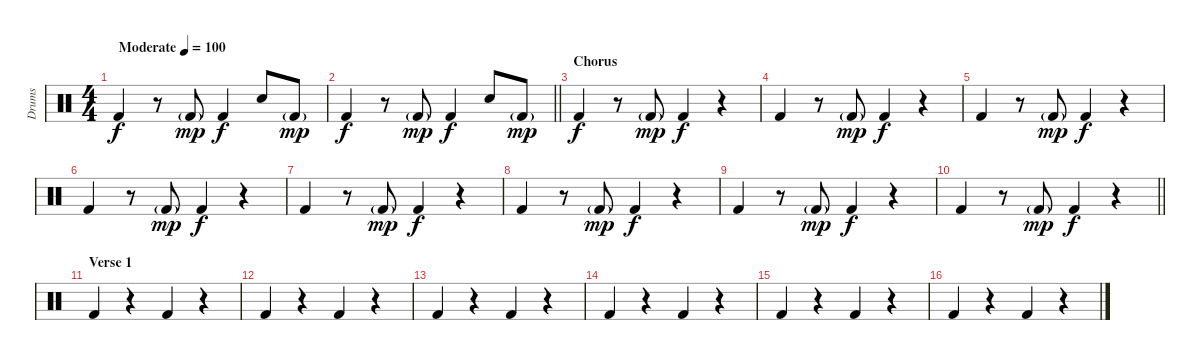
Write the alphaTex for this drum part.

\track ("Drums" "Drums") {instrument percussion}
\staff {score}
\articulation defaults
\ts (4 4)
\tempo (100 "Moderate")
\clef neutral
\ks c "Kick (hit) 2".4{dy f}
r.8 "Kick (hit) 2"{g}.8{dy mp} "Kick (hit) 2".4{dy f} "Snare (hit) 2".8 "Kick (hit) 2"{g}.8{dy mp} |
\barLineRight lightlight "Kick (hit) 2".4{dy f}
r.8 "Kick (hit) 2"{g}.8{dy mp} "Kick (hit) 2".4{dy f} "Snare (hit) 2".8 "Kick (hit) 2"{g}.8{dy mp} |
\section ("" "Chorus")
"Kick (hit) 2".4{dy f} r.8 "Kick (hit) 2"{g}.8{dy mp} "Kick (hit) 2".4{dy f} r.4 |
"Kick (hit) 2".4 r.8 "Kick (hit) 2"{g}.8{dy mp} "Kick (hit) 2".4{dy f} r.4 |
"Kick (hit) 2".4 r.8 "Kick (hit) 2"{g}.8{dy mp} "Kick (hit) 2".4{dy f} r.4 |
"Kick (hit) 2".4 r.8 "Kick (hit) 2"{g}.8{dy mp} "Kick (hit) 2".4{dy f} r.4 |
"Kick (hit) 2".4 r.8 "Kick (hit) 2"{g}.8{dy mp} "Kick (hit) 2".4{dy f} r.4 |
"Kick (hit) 2".4 r.8 "Kick (hit) 2"{g}.8{dy mp} "Kick (hit) 2".4{dy f} r.4 |
"Kick (hit) 2".4 r.8 "Kick (hit) 2"{g}.8{dy mp} "Kick (hit) 2".4{dy f} r.4 |
\barLineRight lightlight "Kick (hit) 2".4
r.8 "Kick (hit) 2"{g}.8{dy mp} "Kick (hit) 2".4{dy f} r.4 |
\section ("" "Verse 1")
"Kick (hit) 2".4 r.4 "Kick (hit) 2".4 r.4 |
"Kick (hit) 2".4 r.4 "Kick (hit) 2".4 r.4 |
"Kick (hit) 2".4 r.4 "Kick (hit) 2".4 r.4 |
"Kick (hit) 2".4 r.4 "Kick (hit) 2".4 r.4 |
"Kick (hit) 2".4 r.4 "Kick (hit) 2".4 r.4 |
"Kick (hit) 2".4 r.4 "Kick (hit) 2".4 r.4
